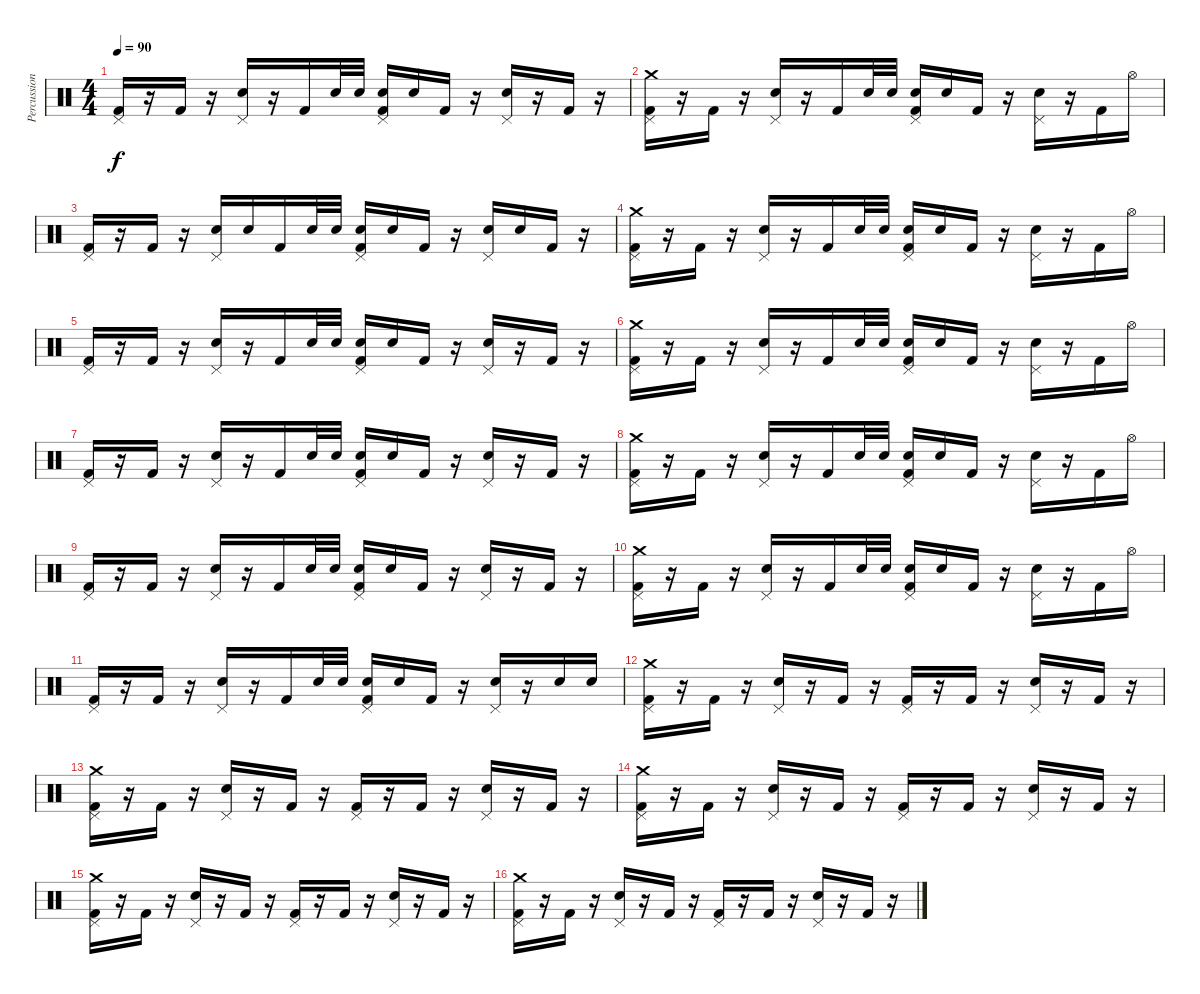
\track ("Percussion" "Percussion") {instrument percussion}
\staff {score}
\articulation defaults
\ts (4 4)
\tempo 90
\clef neutral
\ks c
("Pedal Hi-Hat (hit)" "Kick (hit) 2").16{dy f} r.16 "Kick (hit) 2".16 r.16 ("Pedal Hi-Hat (hit)" "Snare (hit) 2").16 r.16 "Kick (hit) 2".16 "Snare (hit) 2".32 "Snare (hit) 2".32 ("Pedal Hi-Hat (hit)" "Snare (hit) 2" "Kick (hit) 2").16 "Snare (hit) 2".16 "Kick (hit) 2".16 r.16 ("Pedal Hi-Hat (hit)" "Snare (hit) 2").16 r.16 "Kick (hit) 2".16 r.16 |
("Crash medium (hit)" "Pedal Hi-Hat (hit)" "Kick (hit) 2").16 r.16 "Kick (hit) 2".16 r.16 ("Pedal Hi-Hat (hit)" "Snare (hit) 2").16 r.16 "Kick (hit) 2".16 "Snare (hit) 2".32 "Snare (hit) 2".32 ("Pedal Hi-Hat (hit)" "Snare (hit) 2" "Kick (hit) 2").16 "Snare (hit) 2".16 "Kick (hit) 2".16 r.16 ("Pedal Hi-Hat (hit)" "Snare (hit) 2").16 r.16 "Kick (hit) 2".16 "Hi-Hat (open)".16 |
("Pedal Hi-Hat (hit)" "Kick (hit) 2").16 r.16 "Kick (hit) 2".16 r.16 ("Pedal Hi-Hat (hit)" "Snare (hit) 2").16 "Snare (hit) 2".16 "Kick (hit) 2".16 "Snare (hit) 2".32 "Snare (hit) 2".32 ("Pedal Hi-Hat (hit)" "Snare (hit) 2" "Kick (hit) 2").16 "Snare (hit) 2".16 "Kick (hit) 2".16 r.16 ("Pedal Hi-Hat (hit)" "Snare (hit) 2").16 "Snare (hit) 2".16 "Kick (hit) 2".16 r.16 |
("Crash medium (hit)" "Pedal Hi-Hat (hit)" "Kick (hit) 2").16 r.16 "Kick (hit) 2".16 r.16 ("Pedal Hi-Hat (hit)" "Snare (hit) 2").16 r.16 "Kick (hit) 2".16 "Snare (hit) 2".32 "Snare (hit) 2".32 ("Pedal Hi-Hat (hit)" "Snare (hit) 2" "Kick (hit) 2").16 "Snare (hit) 2".16 "Kick (hit) 2".16 r.16 ("Pedal Hi-Hat (hit)" "Snare (hit) 2").16 r.16 "Kick (hit) 2".16 "Hi-Hat (open)".16 |
("Pedal Hi-Hat (hit)" "Kick (hit) 2").16 r.16 "Kick (hit) 2".16 r.16 ("Pedal Hi-Hat (hit)" "Snare (hit) 2").16 r.16 "Kick (hit) 2".16 "Snare (hit) 2".32 "Snare (hit) 2".32 ("Pedal Hi-Hat (hit)" "Snare (hit) 2" "Kick (hit) 2").16 "Snare (hit) 2".16 "Kick (hit) 2".16 r.16 ("Pedal Hi-Hat (hit)" "Snare (hit) 2").16 r.16 "Kick (hit) 2".16 r.16 |
("Crash medium (hit)" "Pedal Hi-Hat (hit)" "Kick (hit) 2").16 r.16 "Kick (hit) 2".16 r.16 ("Pedal Hi-Hat (hit)" "Snare (hit) 2").16 r.16 "Kick (hit) 2".16 "Snare (hit) 2".32 "Snare (hit) 2".32 ("Pedal Hi-Hat (hit)" "Snare (hit) 2" "Kick (hit) 2").16 "Snare (hit) 2".16 "Kick (hit) 2".16 r.16 ("Pedal Hi-Hat (hit)" "Snare (hit) 2").16 r.16 "Kick (hit) 2".16 "Hi-Hat (open)".16 |
("Pedal Hi-Hat (hit)" "Kick (hit) 2").16 r.16 "Kick (hit) 2".16 r.16 ("Pedal Hi-Hat (hit)" "Snare (hit) 2").16 r.16 "Kick (hit) 2".16 "Snare (hit) 2".32 "Snare (hit) 2".32 ("Pedal Hi-Hat (hit)" "Snare (hit) 2" "Kick (hit) 2").16 "Snare (hit) 2".16 "Kick (hit) 2".16 r.16 ("Pedal Hi-Hat (hit)" "Snare (hit) 2").16 r.16 "Kick (hit) 2".16 r.16 |
("Crash medium (hit)" "Pedal Hi-Hat (hit)" "Kick (hit) 2").16 r.16 "Kick (hit) 2".16 r.16 ("Pedal Hi-Hat (hit)" "Snare (hit) 2").16 r.16 "Kick (hit) 2".16 "Snare (hit) 2".32 "Snare (hit) 2".32 ("Pedal Hi-Hat (hit)" "Snare (hit) 2" "Kick (hit) 2").16 "Snare (hit) 2".16 "Kick (hit) 2".16 r.16 ("Pedal Hi-Hat (hit)" "Snare (hit) 2").16 r.16 "Kick (hit) 2".16 "Hi-Hat (open)".16 |
("Pedal Hi-Hat (hit)" "Kick (hit) 2").16 r.16 "Kick (hit) 2".16 r.16 ("Pedal Hi-Hat (hit)" "Snare (hit) 2").16 r.16 "Kick (hit) 2".16 "Snare (hit) 2".32 "Snare (hit) 2".32 ("Pedal Hi-Hat (hit)" "Snare (hit) 2" "Kick (hit) 2").16 "Snare (hit) 2".16 "Kick (hit) 2".16 r.16 ("Pedal Hi-Hat (hit)" "Snare (hit) 2").16 r.16 "Kick (hit) 2".16 r.16 |
("Crash medium (hit)" "Pedal Hi-Hat (hit)" "Kick (hit) 2").16 r.16 "Kick (hit) 2".16 r.16 ("Pedal Hi-Hat (hit)" "Snare (hit) 2").16 r.16 "Kick (hit) 2".16 "Snare (hit) 2".32 "Snare (hit) 2".32 ("Pedal Hi-Hat (hit)" "Snare (hit) 2" "Kick (hit) 2").16 "Snare (hit) 2".16 "Kick (hit) 2".16 r.16 ("Pedal Hi-Hat (hit)" "Snare (hit) 2").16 r.16 "Kick (hit) 2".16 "Hi-Hat (open)".16 |
("Pedal Hi-Hat (hit)" "Kick (hit) 2").16 r.16 "Kick (hit) 2".16 r.16 ("Pedal Hi-Hat (hit)" "Snare (hit) 2").16 r.16 "Kick (hit) 2".16 "Snare (hit) 2".32 "Snare (hit) 2".32 ("Pedal Hi-Hat (hit)" "Snare (hit) 2" "Kick (hit) 2").16 "Snare (hit) 2".16 "Kick (hit) 2".16 r.16 ("Pedal Hi-Hat (hit)" "Snare (hit) 2").16 r.16 "Snare (hit) 2".16 "Snare (hit) 2".16 |
("Crash medium (hit)" "Pedal Hi-Hat (hit)" "Kick (hit) 2").16 r.16 "Kick (hit) 2".16 r.16 ("Pedal Hi-Hat (hit)" "Snare (hit) 2").16 r.16 "Kick (hit) 2".16 r.16 ("Pedal Hi-Hat (hit)" "Kick (hit) 2").16 r.16 "Kick (hit) 2".16 r.16 ("Pedal Hi-Hat (hit)" "Snare (hit) 2").16 r.16 "Kick (hit) 2".16 r.16 |
("Crash medium (hit)" "Pedal Hi-Hat (hit)" "Kick (hit) 2").16 r.16 "Kick (hit) 2".16 r.16 ("Pedal Hi-Hat (hit)" "Snare (hit) 2").16 r.16 "Kick (hit) 2".16 r.16 ("Pedal Hi-Hat (hit)" "Kick (hit) 2").16 r.16 "Kick (hit) 2".16 r.16 ("Pedal Hi-Hat (hit)" "Snare (hit) 2").16 r.16 "Kick (hit) 2".16 r.16 |
("Crash medium (hit)" "Pedal Hi-Hat (hit)" "Kick (hit) 2").16 r.16 "Kick (hit) 2".16 r.16 ("Pedal Hi-Hat (hit)" "Snare (hit) 2").16 r.16 "Kick (hit) 2".16 r.16 ("Pedal Hi-Hat (hit)" "Kick (hit) 2").16 r.16 "Kick (hit) 2".16 r.16 ("Pedal Hi-Hat (hit)" "Snare (hit) 2").16 r.16 "Kick (hit) 2".16 r.16 |
("Crash medium (hit)" "Pedal Hi-Hat (hit)" "Kick (hit) 2").16 r.16 "Kick (hit) 2".16 r.16 ("Pedal Hi-Hat (hit)" "Snare (hit) 2").16 r.16 "Kick (hit) 2".16 r.16 ("Pedal Hi-Hat (hit)" "Kick (hit) 2").16 r.16 "Kick (hit) 2".16 r.16 ("Pedal Hi-Hat (hit)" "Snare (hit) 2").16 r.16 "Kick (hit) 2".16 r.16 |
("Crash medium (hit)" "Pedal Hi-Hat (hit)" "Kick (hit) 2").16 r.16 "Kick (hit) 2".16 r.16 ("Pedal Hi-Hat (hit)" "Snare (hit) 2").16 r.16 "Kick (hit) 2".16 r.16 ("Pedal Hi-Hat (hit)" "Kick (hit) 2").16 r.16 "Kick (hit) 2".16 r.16 ("Pedal Hi-Hat (hit)" "Snare (hit) 2").16 r.16 "Kick (hit) 2".16 r.16
